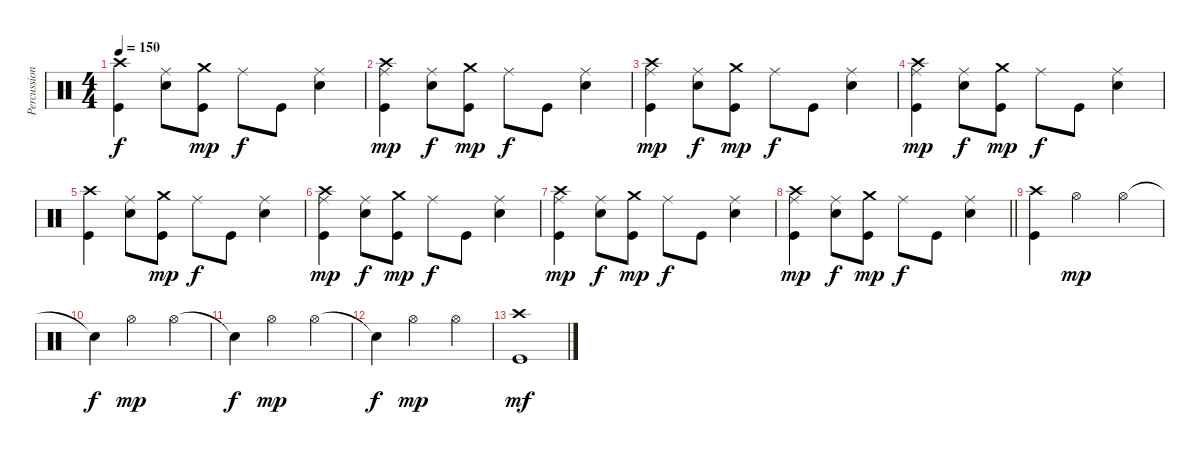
\track ("Percussions" "Percussion") {instrument percussion}
\staff {score}
\articulation defaults
\ts (4 4)
\tempo 150
\clef neutral
\ks c
("Kick (hit)" "Crash high (hit)").4{dy f} ("Electric Snare (hit)" "Ride (middle)").8 ("Kick (hit)" "Crash medium (hit)").8{dy mp} "Ride (middle)".8{dy f} "Kick (hit)".8 ("Electric Snare (hit)" "Ride (middle)").4 |
("Kick (hit)" "Ride (middle)" "Crash high (hit)").4{dy mp} ("Electric Snare (hit)" "Ride (middle)").8{dy f} ("Kick (hit)" "Crash medium (hit)").8{dy mp} "Ride (middle)".8{dy f} "Kick (hit)".8 ("Electric Snare (hit)" "Ride (middle)").4 |
("Kick (hit)" "Ride (middle)" "Crash high (hit)").4{dy mp} ("Electric Snare (hit)" "Ride (middle)").8{dy f} ("Kick (hit)" "Crash medium (hit)").8{dy mp} "Ride (middle)".8{dy f} "Kick (hit)".8 ("Electric Snare (hit)" "Ride (middle)").4 |
("Kick (hit)" "Ride (middle)" "Crash high (hit)").4{dy mp} ("Electric Snare (hit)" "Ride (middle)").8{dy f} ("Kick (hit)" "Crash medium (hit)").8{dy mp} "Ride (middle)".8{dy f} "Kick (hit)".8 ("Electric Snare (hit)" "Ride (middle)").4 |
("Kick (hit)" "Crash high (hit)").4 ("Electric Snare (hit)" "Ride (middle)").8 ("Kick (hit)" "Crash medium (hit)").8{dy mp} "Ride (middle)".8{dy f} "Kick (hit)".8 ("Electric Snare (hit)" "Ride (middle)").4 |
("Kick (hit)" "Ride (middle)" "Crash high (hit)").4{dy mp} ("Electric Snare (hit)" "Ride (middle)").8{dy f} ("Kick (hit)" "Crash medium (hit)").8{dy mp} "Ride (middle)".8{dy f} "Kick (hit)".8 ("Electric Snare (hit)" "Ride (middle)").4 |
("Kick (hit)" "Ride (middle)" "Crash high (hit)").4{dy mp} ("Electric Snare (hit)" "Ride (middle)").8{dy f} ("Kick (hit)" "Crash medium (hit)").8{dy mp} "Ride (middle)".8{dy f} "Kick (hit)".8 ("Electric Snare (hit)" "Ride (middle)").4 |
\barLineRight lightlight
("Kick (hit)" "Ride (middle)" "Crash high (hit)").4{dy mp} ("Electric Snare (hit)" "Ride (middle)").8{dy f} ("Kick (hit)" "Crash medium (hit)").8{dy mp} "Ride (middle)".8{dy f} "Kick (hit)".8 ("Electric Snare (hit)" "Ride (middle)").4 |
("Kick (hit)" "Crash high (hit)").4 "Hi-Hat (open)".2{dy mp} "Hi-Hat (open)".4 |
"Snare (hit)"{t}.4{dy f} "Hi-Hat (open)".2{dy mp} "Hi-Hat (open)".4 |
"Snare (hit)"{t}.4{dy f} "Hi-Hat (open)".2{dy mp} "Hi-Hat (open)".4 |
"Snare (hit)"{t}.4{dy f} "Hi-Hat (open)".2{dy mp} "Hi-Hat (open)".4 |
("Kick (hit)" "Crash high (hit)").1{dy mf}
